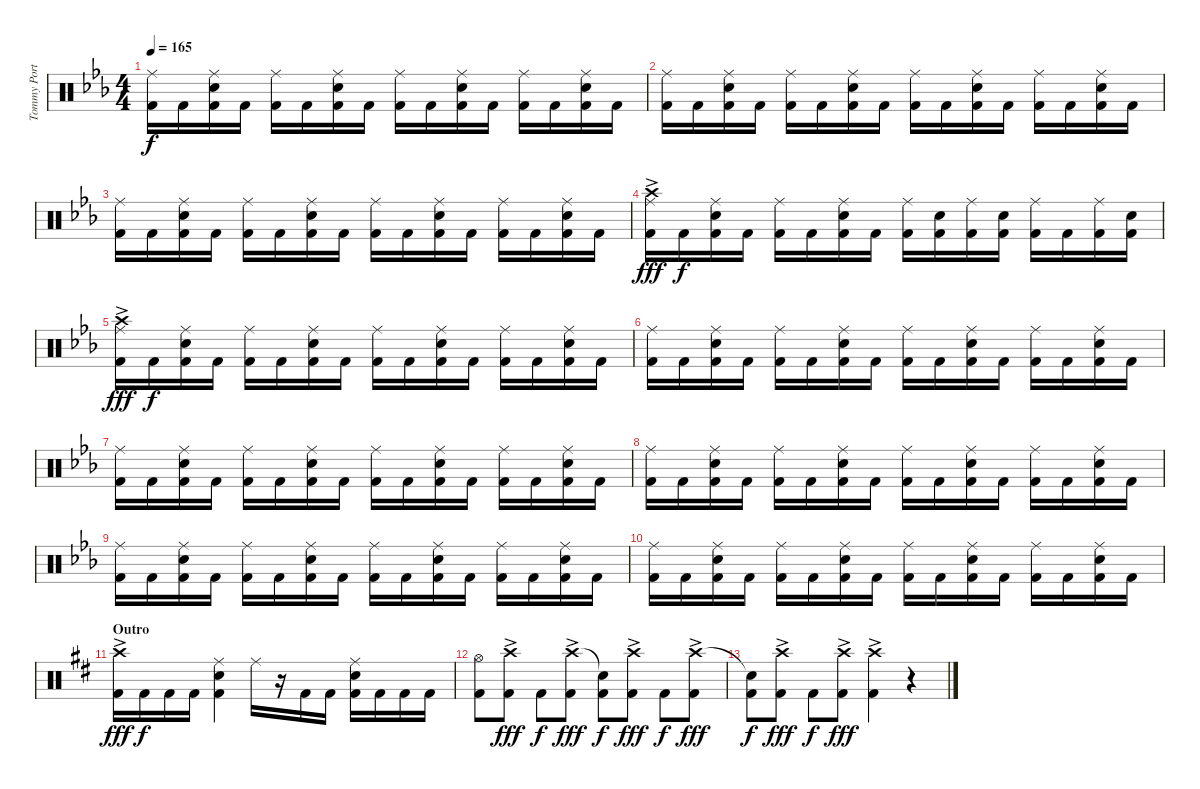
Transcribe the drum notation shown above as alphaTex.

\track ("Tommy Portimo" "Tommy Port") {instrument percussion}
\staff {score}
\articulation defaults
\ts (4 4)
\tempo 165
\clef neutral
\ks cminor
("Ride (middle)" "Kick (hit) 2").16{dy f} "Kick (hit) 2".16 ("Ride (middle)" "Electric Snare (hit)" "Kick (hit) 2").16 "Kick (hit) 2".16 ("Ride (middle)" "Kick (hit) 2").16 "Kick (hit) 2".16 ("Ride (middle)" "Electric Snare (hit)" "Kick (hit) 2").16 "Kick (hit) 2".16 ("Ride (middle)" "Kick (hit) 2").16 "Kick (hit) 2".16 ("Ride (middle)" "Electric Snare (hit)" "Kick (hit) 2").16 "Kick (hit) 2".16 ("Ride (middle)" "Kick (hit) 2").16 "Kick (hit) 2".16 ("Ride (middle)" "Electric Snare (hit)" "Kick (hit) 2").16 "Kick (hit) 2".16 |
("Ride (middle)" "Kick (hit) 2").16 "Kick (hit) 2".16 ("Ride (middle)" "Electric Snare (hit)" "Kick (hit) 2").16 "Kick (hit) 2".16 ("Ride (middle)" "Kick (hit) 2").16 "Kick (hit) 2".16 ("Ride (middle)" "Electric Snare (hit)" "Kick (hit) 2").16 "Kick (hit) 2".16 ("Ride (middle)" "Kick (hit) 2").16 "Kick (hit) 2".16 ("Ride (middle)" "Electric Snare (hit)" "Kick (hit) 2").16 "Kick (hit) 2".16 ("Ride (middle)" "Kick (hit) 2").16 "Kick (hit) 2".16 ("Ride (middle)" "Electric Snare (hit)" "Kick (hit) 2").16 "Kick (hit) 2".16 |
("Ride (middle)" "Kick (hit) 2").16 "Kick (hit) 2".16 ("Ride (middle)" "Electric Snare (hit)" "Kick (hit) 2").16 "Kick (hit) 2".16 ("Ride (middle)" "Kick (hit) 2").16 "Kick (hit) 2".16 ("Ride (middle)" "Electric Snare (hit)" "Kick (hit) 2").16 "Kick (hit) 2".16 ("Ride (middle)" "Kick (hit) 2").16 "Kick (hit) 2".16 ("Ride (middle)" "Electric Snare (hit)" "Kick (hit) 2").16 "Kick (hit) 2".16 ("Ride (middle)" "Kick (hit) 2").16 "Kick (hit) 2".16 ("Ride (middle)" "Electric Snare (hit)" "Kick (hit) 2").16 "Kick (hit) 2".16 |
("Crash high (hit)"{ac} "Ride (middle)" "Kick (hit) 2").16{dy fff} "Kick (hit) 2".16{dy f} ("Ride (middle)" "Electric Snare (hit)" "Kick (hit) 2").16 "Kick (hit) 2".16 ("Ride (middle)" "Kick (hit) 2").16 "Kick (hit) 2".16 ("Ride (middle)" "Electric Snare (hit)" "Kick (hit) 2").16 "Kick (hit) 2".16 ("Ride (middle)" "Kick (hit) 2").16 ("Electric Snare (hit)" "Kick (hit) 2").16 ("Ride (middle)" "Kick (hit) 2").16 ("Electric Snare (hit)" "Kick (hit) 2").16 ("Ride (middle)" "Kick (hit) 2").16 "Kick (hit) 2".16 ("Ride (middle)" "Kick (hit) 2").16 ("Electric Snare (hit)" "Kick (hit) 2").16 |
("Crash high (hit)"{ac} "Ride (middle)" "Kick (hit) 2").16{dy fff} "Kick (hit) 2".16{dy f} ("Ride (middle)" "Electric Snare (hit)" "Kick (hit) 2").16 "Kick (hit) 2".16 ("Ride (middle)" "Kick (hit) 2").16 "Kick (hit) 2".16 ("Ride (middle)" "Electric Snare (hit)" "Kick (hit) 2").16 "Kick (hit) 2".16 ("Ride (middle)" "Kick (hit) 2").16 "Kick (hit) 2".16 ("Ride (middle)" "Electric Snare (hit)" "Kick (hit) 2").16 "Kick (hit) 2".16 ("Ride (middle)" "Kick (hit) 2").16 "Kick (hit) 2".16 ("Ride (middle)" "Electric Snare (hit)" "Kick (hit) 2").16 "Kick (hit) 2".16 |
("Ride (middle)" "Kick (hit) 2").16 "Kick (hit) 2".16 ("Ride (middle)" "Electric Snare (hit)" "Kick (hit) 2").16 "Kick (hit) 2".16 ("Ride (middle)" "Kick (hit) 2").16 "Kick (hit) 2".16 ("Ride (middle)" "Electric Snare (hit)" "Kick (hit) 2").16 "Kick (hit) 2".16 ("Ride (middle)" "Kick (hit) 2").16 "Kick (hit) 2".16 ("Ride (middle)" "Electric Snare (hit)" "Kick (hit) 2").16 "Kick (hit) 2".16 ("Ride (middle)" "Kick (hit) 2").16 "Kick (hit) 2".16 ("Ride (middle)" "Electric Snare (hit)" "Kick (hit) 2").16 "Kick (hit) 2".16 |
("Ride (middle)" "Kick (hit) 2").16 "Kick (hit) 2".16 ("Ride (middle)" "Electric Snare (hit)" "Kick (hit) 2").16 "Kick (hit) 2".16 ("Ride (middle)" "Kick (hit) 2").16 "Kick (hit) 2".16 ("Ride (middle)" "Electric Snare (hit)" "Kick (hit) 2").16 "Kick (hit) 2".16 ("Ride (middle)" "Kick (hit) 2").16 "Kick (hit) 2".16 ("Ride (middle)" "Electric Snare (hit)" "Kick (hit) 2").16 "Kick (hit) 2".16 ("Ride (middle)" "Kick (hit) 2").16 "Kick (hit) 2".16 ("Ride (middle)" "Electric Snare (hit)" "Kick (hit) 2").16 "Kick (hit) 2".16 |
("Ride (middle)" "Kick (hit) 2").16 "Kick (hit) 2".16 ("Ride (middle)" "Electric Snare (hit)" "Kick (hit) 2").16 "Kick (hit) 2".16 ("Ride (middle)" "Kick (hit) 2").16 "Kick (hit) 2".16 ("Ride (middle)" "Electric Snare (hit)" "Kick (hit) 2").16 "Kick (hit) 2".16 ("Ride (middle)" "Kick (hit) 2").16 "Kick (hit) 2".16 ("Ride (middle)" "Electric Snare (hit)" "Kick (hit) 2").16 "Kick (hit) 2".16 ("Ride (middle)" "Kick (hit) 2").16 "Kick (hit) 2".16 ("Ride (middle)" "Electric Snare (hit)" "Kick (hit) 2").16 "Kick (hit) 2".16 |
("Ride (middle)" "Kick (hit) 2").16 "Kick (hit) 2".16 ("Ride (middle)" "Electric Snare (hit)" "Kick (hit) 2").16 "Kick (hit) 2".16 ("Ride (middle)" "Kick (hit) 2").16 "Kick (hit) 2".16 ("Ride (middle)" "Electric Snare (hit)" "Kick (hit) 2").16 "Kick (hit) 2".16 ("Ride (middle)" "Kick (hit) 2").16 "Kick (hit) 2".16 ("Ride (middle)" "Electric Snare (hit)" "Kick (hit) 2").16 "Kick (hit) 2".16 ("Ride (middle)" "Kick (hit) 2").16 "Kick (hit) 2".16 ("Ride (middle)" "Electric Snare (hit)" "Kick (hit) 2").16 "Kick (hit) 2".16 |
("Ride (middle)" "Kick (hit) 2").16 "Kick (hit) 2".16 ("Ride (middle)" "Electric Snare (hit)" "Kick (hit) 2").16 "Kick (hit) 2".16 ("Ride (middle)" "Kick (hit) 2").16 "Kick (hit) 2".16 ("Ride (middle)" "Electric Snare (hit)" "Kick (hit) 2").16 "Kick (hit) 2".16 ("Ride (middle)" "Kick (hit) 2").16 "Kick (hit) 2".16 ("Ride (middle)" "Electric Snare (hit)" "Kick (hit) 2").16 "Kick (hit) 2".16 ("Ride (middle)" "Kick (hit) 2").16 "Kick (hit) 2".16 ("Ride (middle)" "Electric Snare (hit)" "Kick (hit) 2").16 "Kick (hit) 2".16 |
\section ("" "Outro")
\ks bminor
("Crash high (hit)"{ac} "Kick (hit) 2").16{dy fff} "Kick (hit) 2".16{dy f} "Kick (hit) 2".16 "Kick (hit) 2".16 ("Ride (middle)" "Electric Snare (hit)" "Kick (hit) 2").4 "Ride (middle)".16 r.16 "Kick (hit) 2".16 "Kick (hit) 2".16 ("Ride (middle)" "Electric Snare (hit)" "Kick (hit) 2").16 "Kick (hit) 2".16 "Kick (hit) 2".16 "Kick (hit) 2".16 |
("Hi-Hat (open)" "Kick (hit) 2").8 ("Crash high (hit)"{ac} "Kick (hit) 2").8{dy fff} "Kick (hit) 2".8{dy f} ("Crash high (hit)"{ac} "Kick (hit) 2").8{dy fff} ("Snare (hit)"{t} "Kick (hit) 2").8{dy f} ("Crash high (hit)"{ac} "Kick (hit) 2").8{dy fff} "Kick (hit) 2".8{dy f} ("Crash high (hit)"{ac} "Kick (hit) 2").8{dy fff} |
("Snare (hit)"{t} "Kick (hit) 2").8{dy f} ("Crash high (hit)"{ac} "Kick (hit) 2").8{dy fff} "Kick (hit) 2".8{dy f} ("Crash high (hit)"{ac} "Kick (hit) 2").8{dy fff} ("Crash high (hit)"{ac} "Kick (hit) 2").4 r.4
